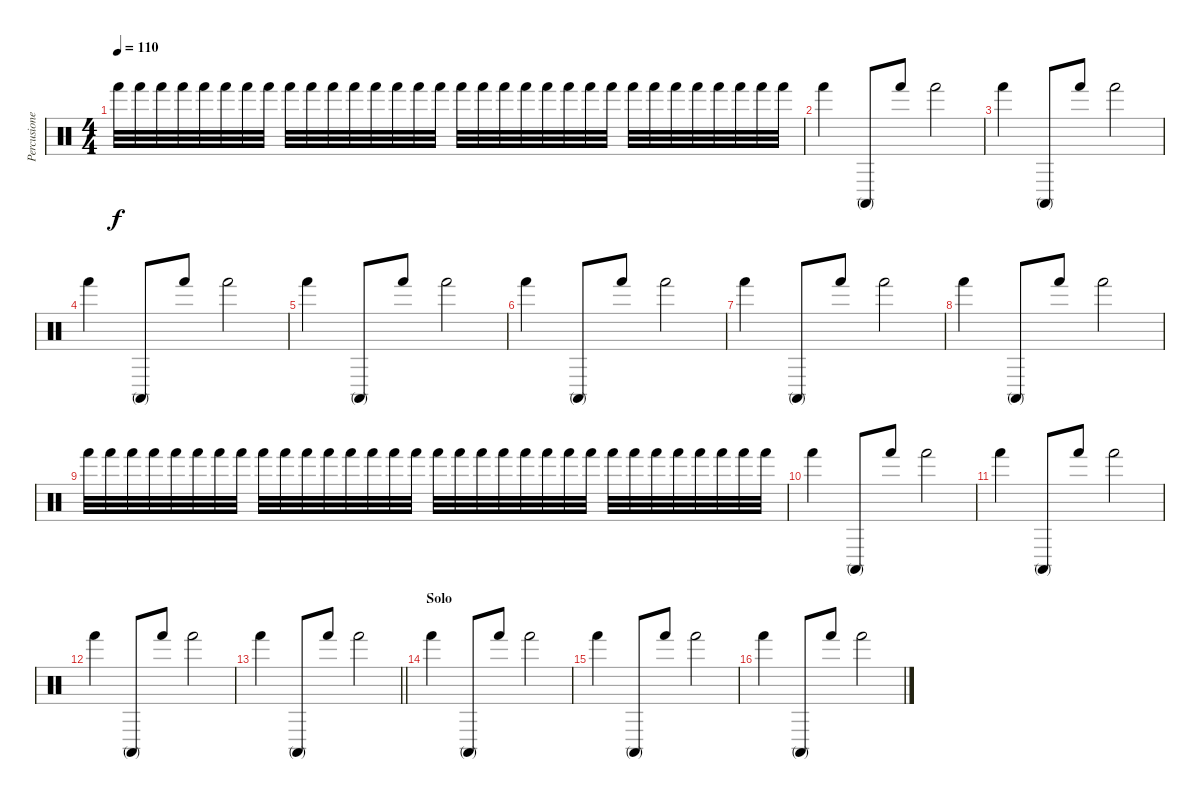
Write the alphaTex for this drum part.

\track ("Percusiones" "Percusione") {instrument percussion}
\staff {score}
\articulation defaults
\ts (4 4)
\tempo 110
\clef neutral
\ks c "Hand (hit)".32{dy f} "Hand (hit)".32 "Hand (hit)".32 "Hand (hit)".32 "Hand (hit)".32 "Hand (hit)".32 "Hand (hit)".32 "Hand (hit)".32 "Hand (hit)".32 "Hand (hit)".32 "Hand (hit)".32 "Hand (hit)".32 "Hand (hit)".32 "Hand (hit)".32 "Hand (hit)".32 "Hand (hit)".32 "Hand (hit)".32 "Hand (hit)".32 "Hand (hit)".32 "Hand (hit)".32 "Hand (hit)".32 "Hand (hit)".32 "Hand (hit)".32 "Hand (hit)".32 "Hand (hit)".32 "Hand (hit)".32 "Hand (hit)".32 "Hand (hit)".32 "Hand (hit)".32 "Hand (hit)".32 "Hand (hit)".32 "Hand (hit)".32
|
"Hand (hit)".4 "Conga high (mute)".8 "Hand (hit)".8 "Hand (hit)".2 |
"Hand (hit)".4 "Conga high (mute)".8 "Hand (hit)".8 "Hand (hit)".2 |
"Hand (hit)".4 "Conga high (mute)".8 "Hand (hit)".8 "Hand (hit)".2 |
"Hand (hit)".4 "Conga high (mute)".8 "Hand (hit)".8 "Hand (hit)".2 |
"Hand (hit)".4 "Conga high (mute)".8 "Hand (hit)".8 "Hand (hit)".2 |
"Hand (hit)".4 "Conga high (mute)".8 "Hand (hit)".8 "Hand (hit)".2 |
"Hand (hit)".4 "Conga high (mute)".8 "Hand (hit)".8 "Hand (hit)".2 |
"Hand (hit)".32 "Hand (hit)".32 "Hand (hit)".32 "Hand (hit)".32 "Hand (hit)".32 "Hand (hit)".32 "Hand (hit)".32 "Hand (hit)".32 "Hand (hit)".32 "Hand (hit)".32 "Hand (hit)".32 "Hand (hit)".32 "Hand (hit)".32 "Hand (hit)".32 "Hand (hit)".32 "Hand (hit)".32 "Hand (hit)".32 "Hand (hit)".32 "Hand (hit)".32 "Hand (hit)".32 "Hand (hit)".32 "Hand (hit)".32 "Hand (hit)".32 "Hand (hit)".32 "Hand (hit)".32 "Hand (hit)".32 "Hand (hit)".32 "Hand (hit)".32 "Hand (hit)".32 "Hand (hit)".32 "Hand (hit)".32 "Hand (hit)".32 |
"Hand (hit)".4 "Conga high (mute)".8 "Hand (hit)".8 "Hand (hit)".2 |
"Hand (hit)".4 "Conga high (mute)".8 "Hand (hit)".8 "Hand (hit)".2 |
"Hand (hit)".4 "Conga high (mute)".8 "Hand (hit)".8 "Hand (hit)".2 |
\barLineRight lightlight "Hand (hit)".4 "Conga high (mute)".8 "Hand (hit)".8 "Hand (hit)".2
|
\section ("" "Solo ")
"Hand (hit)".4 "Conga high (mute)".8 "Hand (hit)".8 "Hand (hit)".2 |
"Hand (hit)".4 "Conga high (mute)".8 "Hand (hit)".8 "Hand (hit)".2 |
"Hand (hit)".4 "Conga high (mute)".8 "Hand (hit)".8 "Hand (hit)".2
